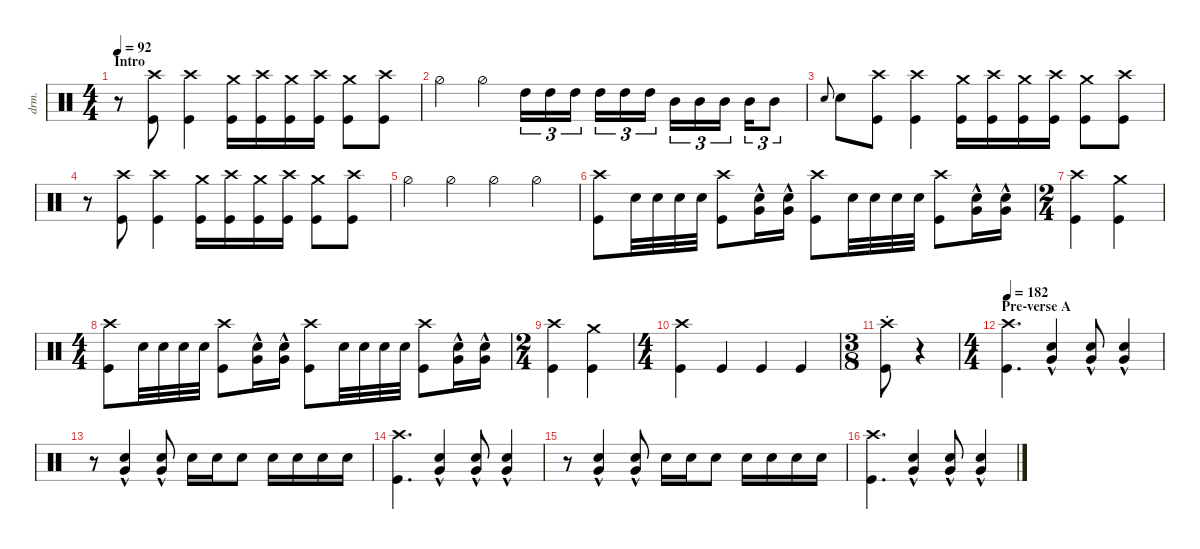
\defaultSystemsLayout 4
\hideDynamics
\bracketExtendMode nobrackets
\otherSystemsTrackNameOrientation horizontal
\track ("Drums" "drm.") {defaultSystemsLayout 4 multiBarRest instrument percussion}
\staff {score}
\articulation defaults
\ts (4 4)
\section ("" "Intro")
\tempo 92
\clef neutral
\ks c
r.8{dy f} ("Crash high (hit)" "Kick (hit)").8 ("Crash high (hit)" "Kick (hit)").4 ("Crash medium (hit)" "Kick (hit)").16 ("Crash high (hit)" "Kick (hit)").16 ("Crash medium (hit)" "Kick (hit)").16 ("Crash high (hit)" "Kick (hit)").16 ("Crash medium (hit)" "Kick (hit)").8 ("Crash high (hit)" "Kick (hit)").8 |
"Hi-Hat (half)".4 "Hi-Hat (half)".4 "High Tom (hit)".16{tu (3 2) dy ff} "High Tom (hit)".16{tu (3 2)} "High Tom (hit)".16{tu (3 2)} "High Tom (hit)".16{tu (3 2)} "High Tom (hit)".16{tu (3 2)} "High Tom (hit)".16{tu (3 2)} "Mid Tom (hit)".16{tu (3 2)} "Mid Tom (hit)".16{tu (3 2)} "Mid Tom (hit)".16{tu (3 2)} "Mid Tom (hit)".16{tu (3 2)} "Mid Tom (hit)".8{tu (3 2)} |
"Snare (hit) 2".8{gr onbeat} "Snare (hit) 2".8{dy f} ("Crash high (hit)" "Kick (hit)").8 ("Crash high (hit)" "Kick (hit)").4 ("Crash medium (hit)" "Kick (hit)").16 ("Crash high (hit)" "Kick (hit)").16 ("Crash medium (hit)" "Kick (hit)").16 ("Crash high (hit)" "Kick (hit)").16 ("Crash medium (hit)" "Kick (hit)").8 ("Crash high (hit)" "Kick (hit)").8 |
r.8 ("Crash high (hit)" "Kick (hit)").8 ("Crash high (hit)" "Kick (hit)").4 ("Crash medium (hit)" "Kick (hit)").16 ("Crash high (hit)" "Kick (hit)").16 ("Crash medium (hit)" "Kick (hit)").16 ("Crash high (hit)" "Kick (hit)").16 ("Crash medium (hit)" "Kick (hit)").8 ("Crash high (hit)" "Kick (hit)").8 |
"Hi-Hat (half)".4 "Hi-Hat (half)".4 "Hi-Hat (half)".4 "Hi-Hat (half)".4 |
("Crash high (hit)" "Kick (hit)").8 "Snare (hit) 2".32{dy mf} "Snare (hit) 2".32{dy mp} "Snare (hit) 2".32{dy mf} "Snare (hit) 2".32{dy mp} ("Crash high (hit)" "Kick (hit)").8{dy f} ("Snare (hit) 2" "Very Low Tom (hit)"{hac}).16 ("Snare (hit) 2" "Very Low Tom (hit)"{hac}).16 ("Crash high (hit)" "Kick (hit)").8 "Snare (hit) 2".32{dy mf} "Snare (hit) 2".32{dy mp} "Snare (hit) 2".32{dy mf} "Snare (hit) 2".32{dy mp} ("Crash high (hit)" "Kick (hit)").8{dy f} ("Snare (hit) 2" "Very Low Tom (hit)"{hac}).16 ("Snare (hit) 2" "Very Low Tom (hit)"{hac}).16 |
\ts (2 4)
\beaming (8 2 2)
("Crash high (hit)" "Kick (hit)").4 ("Crash medium (hit)" "Kick (hit)").4 |
\ts (4 4)
\beaming (8 2 2 2 2)
("Crash high (hit)" "Kick (hit)").8 "Snare (hit) 2".32{dy mf} "Snare (hit) 2".32{dy mp} "Snare (hit) 2".32{dy mf} "Snare (hit) 2".32{dy mp} ("Crash high (hit)" "Kick (hit)").8{dy f} ("Snare (hit) 2" "Very Low Tom (hit)"{hac}).16 ("Snare (hit) 2" "Very Low Tom (hit)"{hac}).16 ("Crash high (hit)" "Kick (hit)").8 "Snare (hit) 2".32{dy mf} "Snare (hit) 2".32{dy mp} "Snare (hit) 2".32{dy mf} "Snare (hit) 2".32{dy mp} ("Crash high (hit)" "Kick (hit)").8{dy f} ("Snare (hit) 2" "Very Low Tom (hit)"{hac}).16 ("Snare (hit) 2" "Very Low Tom (hit)"{hac}).16 |
\ts (2 4)
\beaming (8 2 2)
("Crash high (hit)" "Kick (hit)").4 ("Crash medium (hit)" "Kick (hit)").4 |
\ts (4 4)
\beaming (8 2 2 2 2)
("Crash high (hit)" "Kick (hit)").4 "Kick (hit)".4 "Kick (hit)".4 "Kick (hit)".4 |
\ts (3 8)
\beaming (8 2 2 2 2)
("Crash high (hit)"{st} "Kick (hit)"{st}).8 r.4 |
\ts (4 4)
\beaming (8 2 2 2 2)
\section ("" "Pre-verse A")
\tempo 182
("Crash high (hit)" "Kick (hit)").4{d} ("Snare (hit) 2" "Very Low Tom (hit)"{hac}).4 ("Snare (hit) 2" "Very Low Tom (hit)"{hac}).8 ("Snare (hit) 2" "Very Low Tom (hit)"{hac}).4 |
r.8 ("Snare (hit) 2" "Very Low Tom (hit)"{hac}).4 ("Snare (hit) 2" "Very Low Tom (hit)"{hac}).8 "Snare (hit) 2".16 "Snare (hit) 2".16 "Snare (hit) 2".8 "Snare (hit) 2".16 "Snare (hit) 2".16 "Snare (hit) 2".16 "Snare (hit) 2".16 |
("Crash high (hit)" "Kick (hit)").4{d} ("Snare (hit) 2" "Very Low Tom (hit)"{hac}).4 ("Snare (hit) 2" "Very Low Tom (hit)"{hac}).8 ("Snare (hit) 2" "Very Low Tom (hit)"{hac}).4 |
r.8 ("Snare (hit) 2" "Very Low Tom (hit)"{hac}).4 ("Snare (hit) 2" "Very Low Tom (hit)"{hac}).8 "Snare (hit) 2".16 "Snare (hit) 2".16 "Snare (hit) 2".8 "Snare (hit) 2".16 "Snare (hit) 2".16 "Snare (hit) 2".16 "Snare (hit) 2".16 |
("Crash high (hit)" "Kick (hit)").4{d} ("Snare (hit) 2" "Very Low Tom (hit)"{hac}).4 ("Snare (hit) 2" "Very Low Tom (hit)"{hac}).8 ("Snare (hit) 2" "Very Low Tom (hit)"{hac}).4
